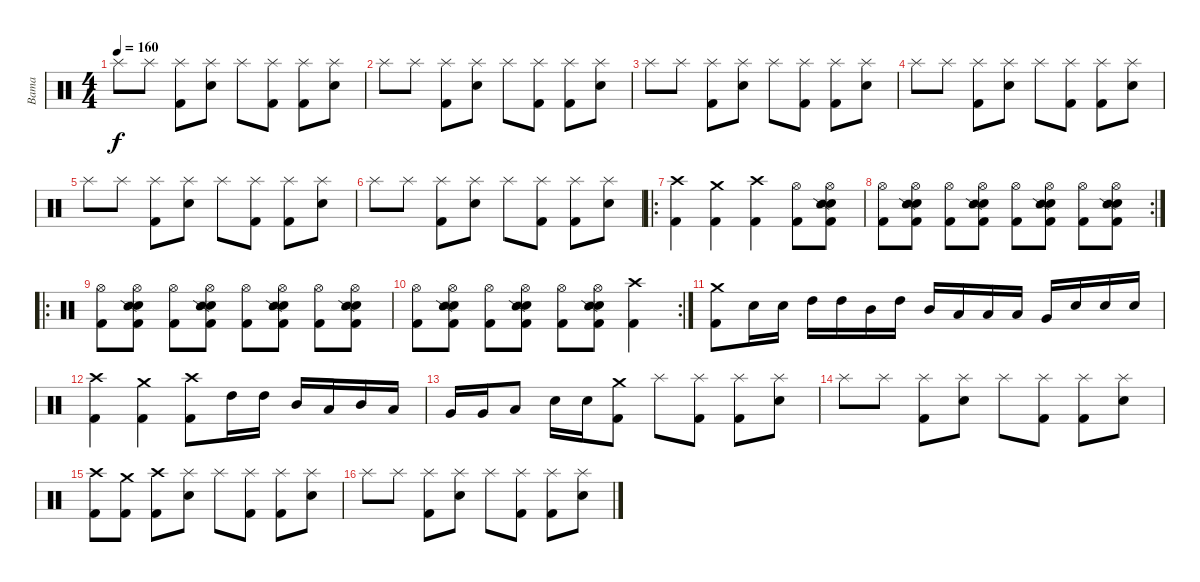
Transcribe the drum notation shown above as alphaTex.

\track ("Bama" "Bama") {instrument percussion}
\staff {score}
\articulation defaults
\ts (4 4)
\tempo 160
\clef neutral
\ks c "Splash (hit)".8{dy f} "Splash (hit)".8
("Splash (hit)" "Kick (hit) 2").8 ("Splash (hit)" "Electric Snare (hit)").8 "Splash (hit)".8 ("Splash (hit)" "Kick (hit) 2").8 ("Splash (hit)" "Kick (hit) 2").8 ("Splash (hit)" "Electric Snare (hit)").8 |
"Splash (hit)".8 "Splash (hit)".8 ("Splash (hit)" "Kick (hit) 2").8 ("Splash (hit)" "Electric Snare (hit)").8 "Splash (hit)".8 ("Splash (hit)" "Kick (hit) 2").8 ("Splash (hit)" "Kick (hit) 2").8 ("Splash (hit)" "Electric Snare (hit)").8 |
"Splash (hit)".8 "Splash (hit)".8 ("Splash (hit)" "Kick (hit) 2").8 ("Splash (hit)" "Electric Snare (hit)").8 "Splash (hit)".8 ("Splash (hit)" "Kick (hit) 2").8 ("Splash (hit)" "Kick (hit) 2").8 ("Splash (hit)" "Electric Snare (hit)").8 |
"Splash (hit)".8 "Splash (hit)".8 ("Splash (hit)" "Kick (hit) 2").8 ("Splash (hit)" "Electric Snare (hit)").8 "Splash (hit)".8 ("Splash (hit)" "Kick (hit) 2").8 ("Splash (hit)" "Kick (hit) 2").8 ("Splash (hit)" "Electric Snare (hit)").8 |
"Splash (hit)".8 "Splash (hit)".8 ("Splash (hit)" "Kick (hit) 2").8 ("Splash (hit)" "Electric Snare (hit)").8 "Splash (hit)".8 ("Splash (hit)" "Kick (hit) 2").8 ("Splash (hit)" "Kick (hit) 2").8 ("Splash (hit)" "Electric Snare (hit)").8 |
"Splash (hit)".8 "Splash (hit)".8 ("Splash (hit)" "Kick (hit) 2").8 ("Splash (hit)" "Electric Snare (hit)").8 "Splash (hit)".8 ("Splash (hit)" "Kick (hit) 2").8 ("Splash (hit)" "Kick (hit) 2").8 ("Splash (hit)" "Electric Snare (hit)").8 |
\ro
("Crash high (hit)" "Kick (hit) 2").4 ("Crash medium (hit)" "Kick (hit) 2").4 ("Crash high (hit)" "Kick (hit) 2").4 ("Hi-Hat (open)" "Kick (hit) 2").8 ("Hi-Hat (open)" "Electric Snare (hit)" "Snare (side stick) 2" "Kick (hit) 2").8 |
\rc 2
("Hi-Hat (open)" "Kick (hit) 2").8 ("Hi-Hat (open)" "Electric Snare (hit)" "Snare (side stick) 2" "Kick (hit) 2").8 ("Hi-Hat (open)" "Kick (hit) 2").8 ("Hi-Hat (open)" "Electric Snare (hit)" "Snare (side stick) 2" "Kick (hit) 2").8 ("Hi-Hat (open)" "Kick (hit) 2").8 ("Hi-Hat (open)" "Electric Snare (hit)" "Snare (side stick) 2" "Kick (hit) 2").8 ("Hi-Hat (open)" "Kick (hit) 2").8 ("Hi-Hat (open)" "Electric Snare (hit)" "Snare (side stick) 2" "Kick (hit) 2").8 |
\ro
("Hi-Hat (open)" "Kick (hit) 2").8 ("Hi-Hat (open)" "Electric Snare (hit)" "Snare (side stick) 2" "Kick (hit) 2").8 ("Hi-Hat (open)" "Kick (hit) 2").8 ("Hi-Hat (open)" "Electric Snare (hit)" "Snare (side stick) 2" "Kick (hit) 2").8 ("Hi-Hat (open)" "Kick (hit) 2").8 ("Hi-Hat (open)" "Electric Snare (hit)" "Snare (side stick) 2" "Kick (hit) 2").8 ("Hi-Hat (open)" "Kick (hit) 2").8 ("Hi-Hat (open)" "Electric Snare (hit)" "Snare (side stick) 2" "Kick (hit) 2").8 |
\rc 2
("Hi-Hat (open)" "Kick (hit) 2").8 ("Hi-Hat (open)" "Electric Snare (hit)" "Snare (side stick) 2" "Kick (hit) 2").8 ("Hi-Hat (open)" "Kick (hit) 2").8 ("Hi-Hat (open)" "Electric Snare (hit)" "Snare (side stick) 2" "Kick (hit) 2").8 ("Hi-Hat (open)" "Kick (hit) 2").8 ("Hi-Hat (open)" "Electric Snare (hit)" "Snare (side stick) 2" "Kick (hit) 2").8 ("Crash high (hit)" "Kick (hit) 2").4 |
("Crash medium (hit)" "Kick (hit) 2").8 "Electric Snare (hit)".16 "Electric Snare (hit)".16 "High Tom (hit)".16 "High Tom (hit)".16 "Mid Tom (hit)".16 "High Tom (hit)".16 "Mid Tom (hit)".16 "Low Tom (hit)".16 "Low Tom (hit)".16 "Low Tom (hit)".16 "Very Low Tom (hit)".16 "Electric Snare (hit)".16 "Electric Snare (hit)".16 "Electric Snare (hit)".16 |
("Crash high (hit)" "Kick (hit) 2").4 ("Crash medium (hit)" "Kick (hit) 2").4 ("Crash high (hit)" "Kick (hit) 2").8 "High Tom (hit)".16 "High Tom (hit)".16 "Mid Tom (hit)".16 "Low Tom (hit)".16 "Mid Tom (hit)".16 "Low Tom (hit)".16 |
"Very Low Tom (hit)".16 "Very Low Tom (hit)".16 "Low Floor Tom (hit)".8 "Electric Snare (hit)".16 "Electric Snare (hit)".16 ("Crash medium (hit)" "Kick (hit) 2").8 "Splash (hit)".8 ("Splash (hit)" "Kick (hit) 2").8 ("Splash (hit)" "Kick (hit) 2").8 ("Splash (hit)" "Electric Snare (hit)").8 |
"Splash (hit)".8 "Splash (hit)".8 ("Splash (hit)" "Kick (hit) 2").8 ("Splash (hit)" "Electric Snare (hit)").8 "Splash (hit)".8 ("Splash (hit)" "Kick (hit) 2").8 ("Splash (hit)" "Kick (hit) 2").8 ("Splash (hit)" "Electric Snare (hit)").8 |
("Crash high (hit)" "Kick (hit) 2").8 ("Crash medium (hit)" "Kick (hit) 2").8 ("Crash high (hit)" "Kick (hit) 2").8 ("Splash (hit)" "Electric Snare (hit)").8 "Splash (hit)".8 ("Splash (hit)" "Kick (hit) 2").8 ("Splash (hit)" "Kick (hit) 2").8 ("Splash (hit)" "Electric Snare (hit)").8 |
"Splash (hit)".8 "Splash (hit)".8 ("Splash (hit)" "Kick (hit) 2").8 ("Splash (hit)" "Electric Snare (hit)").8 "Splash (hit)".8 ("Splash (hit)" "Kick (hit) 2").8 ("Splash (hit)" "Kick (hit) 2").8 ("Splash (hit)" "Electric Snare (hit)").8
